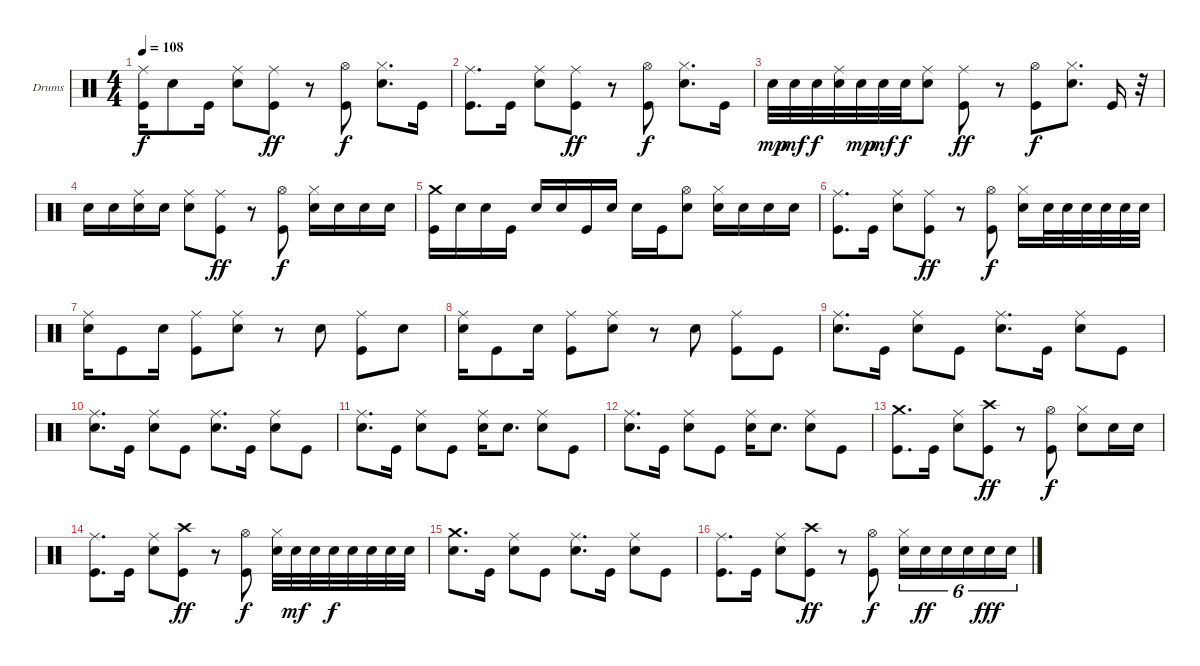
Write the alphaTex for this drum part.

\bracketExtendMode groupsimilarinstruments
\firstSystemTrackNameOrientation horizontal
\otherSystemsTrackNameOrientation horizontal
\track ("Drumkit" "Drums") {instrument percussion}
\staff {score}
\articulation defaults
\ts (4 4)
\tempo 108
\clef neutral
\ks c
("Ride (middle)" "Kick (hit)").16{dy f} "Snare (hit) 2".8 "Kick (hit)".16 ("Ride (middle)" "Snare (hit) 2").8 ("Ride (middle)" "Kick (hit)").8{dy ff} r.8 ("Hi-Hat (open)" "Kick (hit)").8{dy f} ("Hi-Hat (closed)" "Snare (hit) 2").8{d} "Kick (hit)".16 |
("Ride (middle)" "Kick (hit)").8{d} "Kick (hit)".16 ("Ride (middle)" "Snare (hit) 2").8 ("Ride (middle)" "Kick (hit)").8{dy ff} r.8 ("Hi-Hat (open)" "Kick (hit)").8{dy f} ("Hi-Hat (closed)" "Snare (hit) 2").8{d} "Kick (hit)".16 |
"Snare (hit) 2".32{dy mp} "Snare (hit) 2".32{dy mf} "Snare (hit) 2".32{dy f} ("Ride (middle)" "Snare (hit) 2").32 "Snare (hit) 2".32{dy mp} "Snare (hit) 2".32{dy mf} "Snare (hit) 2".32{dy f} ("Ride (middle)" "Snare (hit) 2").8 ("Ride (middle)" "Kick (hit)").8{dy ff} r.8 ("Hi-Hat (open)" "Kick (hit)").8{dy f} ("Hi-Hat (closed)" "Snare (hit) 2").8{d} "Kick (hit)".16 r.32 |
"Snare (hit) 2".16 "Snare (hit) 2".16 ("Ride (middle)" "Snare (hit) 2").16 "Snare (hit) 2".16 ("Ride (middle)" "Snare (hit) 2").8 ("Ride (middle)" "Kick (hit)").8{dy ff} r.8 ("Hi-Hat (open)" "Kick (hit)").8{dy f} ("Hi-Hat (closed)" "Snare (hit) 2").16 "Snare (hit) 2".16 "Snare (hit) 2".16 "Snare (hit) 2".16 |
("Crash medium (hit)" "Kick (hit)").16 "Snare (hit) 2".16 "Snare (hit) 2".16 "Kick (hit)".16 "Snare (hit) 2".16 "Snare (hit) 2".16 "Kick (hit)".16 "Snare (hit) 2".16 "Snare (hit) 2".16 "Kick (hit)".16 ("Hi-Hat (open)" "Snare (hit) 2").8 ("Hi-Hat (closed)" "Snare (hit) 2").16 "Snare (hit) 2".16 "Snare (hit) 2".16 "Snare (hit) 2".16 |
("Ride (middle)" "Kick (hit)").8{d} "Kick (hit)".16 ("Ride (middle)" "Snare (hit) 2").8 ("Ride (middle)" "Kick (hit)").8{dy ff} r.8 ("Hi-Hat (open)" "Kick (hit)").8{dy f} ("Hi-Hat (closed)" "Snare (hit) 2").16 "Snare (hit) 2".32 "Snare (hit) 2".32 "Snare (hit) 2".32 "Snare (hit) 2".32 "Snare (hit) 2".32 "Snare (hit) 2".32 |
("Ride (middle)" "Snare (hit) 2").16 "Kick (hit)".8 "Snare (hit) 2".16 ("Ride (middle)" "Kick (hit)").8 ("Ride (middle)" "Snare (hit) 2").8 r.8 "Snare (hit) 2".8 ("Ride (middle)" "Kick (hit)").8 "Snare (hit) 2".8 |
("Ride (middle)" "Snare (hit) 2").16 "Kick (hit)".8 "Snare (hit) 2".16 ("Ride (middle)" "Kick (hit)").8 ("Ride (middle)" "Snare (hit) 2").8 r.8 "Snare (hit) 2".8 ("Ride (middle)" "Kick (hit)").8 "Kick (hit)".8 |
("Ride (middle)" "Snare (hit) 2").8{d} "Kick (hit)".16 ("Ride (middle)" "Snare (hit) 2").8 "Kick (hit)".8 ("Ride (middle)" "Snare (hit) 2").8{d} "Kick (hit)".16 ("Ride (middle)" "Snare (hit) 2").8 "Kick (hit)".8 |
("Ride (middle)" "Snare (hit) 2").8{d} "Kick (hit)".16 ("Ride (middle)" "Snare (hit) 2").8 "Kick (hit)".8 ("Ride (middle)" "Snare (hit) 2").8{d} "Kick (hit)".16 ("Ride (middle)" "Snare (hit) 2").8 "Kick (hit)".8 |
("Ride (middle)" "Snare (hit) 2").8{d} "Kick (hit)".16 ("Ride (middle)" "Snare (hit) 2").8 "Kick (hit)".8 ("Ride (middle)" "Snare (hit) 2").16 "Snare (hit) 2".8{d} ("Ride (middle)" "Snare (hit) 2").8 "Kick (hit)".8 |
("Ride (middle)" "Snare (hit) 2").8{d} "Kick (hit)".16 ("Ride (middle)" "Snare (hit) 2").8 "Kick (hit)".8 ("Ride (middle)" "Snare (hit) 2").16 "Snare (hit) 2".8{d} ("Ride (middle)" "Snare (hit) 2").8 "Kick (hit)".8 |
("Crash medium (hit)" "Kick (hit)").8{d} "Kick (hit)".16 ("Ride (middle)" "Snare (hit) 2").8 ("Crash high (hit)" "Kick (hit)").8{dy ff} r.8 ("Hi-Hat (open)" "Kick (hit)").8{dy f} ("Hi-Hat (closed)" "Snare (hit) 2").8 "Snare (hit) 2".16 "Snare (hit) 2".16 |
("Ride (middle)" "Kick (hit)").8{d} "Kick (hit)".16 ("Ride (middle)" "Snare (hit) 2").8 ("Crash high (hit)" "Kick (hit)").8{dy ff} r.8 ("Hi-Hat (open)" "Kick (hit)").8{dy f} ("Hi-Hat (closed)" "Snare (hit) 2").32 "Snare (hit) 2".32{dy mf} "Snare (hit) 2".32 "Snare (hit) 2".32{dy f} "Snare (hit) 2".32 "Snare (hit) 2".32 "Snare (hit) 2".32 "Snare (hit) 2".32 |
("Crash medium (hit)" "Snare (hit) 2").8{d} "Kick (hit)".16 ("Ride (middle)" "Snare (hit) 2").8 "Kick (hit)".8 ("Ride (middle)" "Snare (hit) 2").8{d} "Kick (hit)".16 ("Ride (middle)" "Snare (hit) 2").8 "Kick (hit)".8 |
("Ride (middle)" "Kick (hit)").8{d} "Kick (hit)".16 ("Ride (middle)" "Snare (hit) 2").8 ("Crash high (hit)" "Kick (hit)").8{dy ff} r.8 ("Hi-Hat (open)" "Kick (hit)").8{dy f} ("Hi-Hat (closed)" "Snare (hit) 2").16{tu (6 4)} "Snare (hit) 2".16{tu (6 4) dy ff} "Snare (hit) 2".16{tu (6 4)} "Snare (hit) 2".16{tu (6 4)} "Snare (hit) 2".16{tu (6 4) dy fff} "Snare (hit) 2".16{tu (6 4)}
